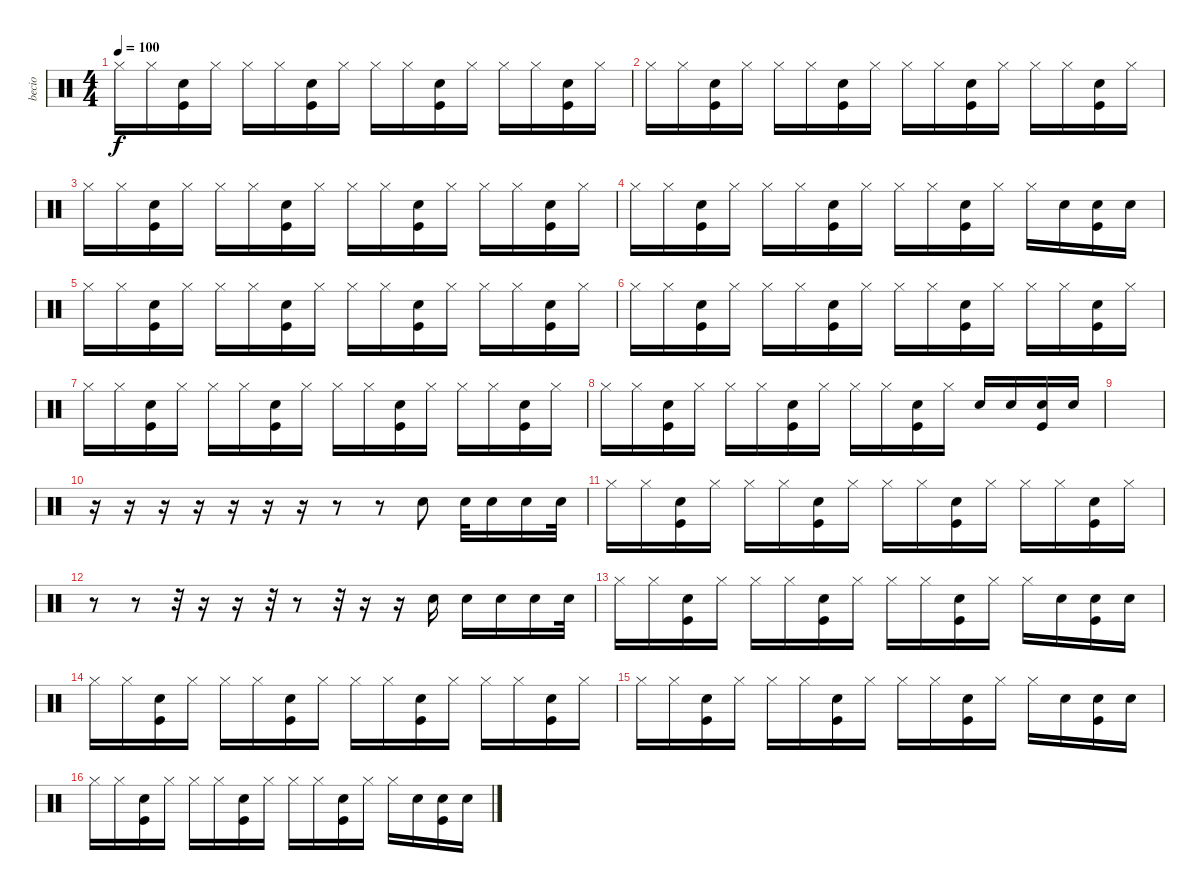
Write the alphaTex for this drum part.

\track ("becio" "becio") {instrument percussion}
\staff {score}
\articulation defaults
\ts (4 4)
\tempo 100
\clef neutral
\ks c "Hi-Hat (closed)".16{dy f} "Hi-Hat (closed)".16
("Electric Snare (hit)" "Kick (hit)").16 "Hi-Hat (closed)".16 "Hi-Hat (closed)".16 "Hi-Hat (closed)".16 ("Electric Snare (hit)" "Kick (hit)").16 "Hi-Hat (closed)".16 "Hi-Hat (closed)".16 "Hi-Hat (closed)".16 ("Electric Snare (hit)" "Kick (hit)").16 "Hi-Hat (closed)".16 "Hi-Hat (closed)".16 "Hi-Hat (closed)".16 ("Electric Snare (hit)" "Kick (hit)").16 "Hi-Hat (closed)".16 |
"Hi-Hat (closed)".16 "Hi-Hat (closed)".16 ("Electric Snare (hit)" "Kick (hit)").16 "Hi-Hat (closed)".16 "Hi-Hat (closed)".16 "Hi-Hat (closed)".16 ("Electric Snare (hit)" "Kick (hit)").16 "Hi-Hat (closed)".16 "Hi-Hat (closed)".16 "Hi-Hat (closed)".16 ("Electric Snare (hit)" "Kick (hit)").16 "Hi-Hat (closed)".16 "Hi-Hat (closed)".16 "Hi-Hat (closed)".16 ("Electric Snare (hit)" "Kick (hit)").16 "Hi-Hat (closed)".16 |
"Hi-Hat (closed)".16 "Hi-Hat (closed)".16 ("Electric Snare (hit)" "Kick (hit)").16 "Hi-Hat (closed)".16 "Hi-Hat (closed)".16 "Hi-Hat (closed)".16 ("Electric Snare (hit)" "Kick (hit)").16 "Hi-Hat (closed)".16 "Hi-Hat (closed)".16 "Hi-Hat (closed)".16 ("Electric Snare (hit)" "Kick (hit)").16 "Hi-Hat (closed)".16 "Hi-Hat (closed)".16 "Hi-Hat (closed)".16 ("Electric Snare (hit)" "Kick (hit)").16 "Hi-Hat (closed)".16 |
"Hi-Hat (closed)".16 "Hi-Hat (closed)".16 ("Electric Snare (hit)" "Kick (hit)").16 "Hi-Hat (closed)".16 "Hi-Hat (closed)".16 "Hi-Hat (closed)".16 ("Electric Snare (hit)" "Kick (hit)").16 "Hi-Hat (closed)".16 "Hi-Hat (closed)".16 "Hi-Hat (closed)".16 ("Electric Snare (hit)" "Kick (hit)").16 "Hi-Hat (closed)".16 "Hi-Hat (closed)".16 "Electric Snare (hit)".16 ("Electric Snare (hit)" "Kick (hit)").16 "Electric Snare (hit)".16 |
"Hi-Hat (closed)".16 "Hi-Hat (closed)".16 ("Electric Snare (hit)" "Kick (hit)").16 "Hi-Hat (closed)".16 "Hi-Hat (closed)".16 "Hi-Hat (closed)".16 ("Electric Snare (hit)" "Kick (hit)").16 "Hi-Hat (closed)".16 "Hi-Hat (closed)".16 "Hi-Hat (closed)".16 ("Electric Snare (hit)" "Kick (hit)").16 "Hi-Hat (closed)".16 "Hi-Hat (closed)".16 "Hi-Hat (closed)".16 ("Electric Snare (hit)" "Kick (hit)").16 "Hi-Hat (closed)".16 |
"Hi-Hat (closed)".16 "Hi-Hat (closed)".16 ("Electric Snare (hit)" "Kick (hit)").16 "Hi-Hat (closed)".16 "Hi-Hat (closed)".16 "Hi-Hat (closed)".16 ("Electric Snare (hit)" "Kick (hit)").16 "Hi-Hat (closed)".16 "Hi-Hat (closed)".16 "Hi-Hat (closed)".16 ("Electric Snare (hit)" "Kick (hit)").16 "Hi-Hat (closed)".16 "Hi-Hat (closed)".16 "Hi-Hat (closed)".16 ("Electric Snare (hit)" "Kick (hit)").16 "Hi-Hat (closed)".16 |
"Hi-Hat (closed)".16 "Hi-Hat (closed)".16 ("Electric Snare (hit)" "Kick (hit)").16 "Hi-Hat (closed)".16 "Hi-Hat (closed)".16 "Hi-Hat (closed)".16 ("Electric Snare (hit)" "Kick (hit)").16 "Hi-Hat (closed)".16 "Hi-Hat (closed)".16 "Hi-Hat (closed)".16 ("Electric Snare (hit)" "Kick (hit)").16 "Hi-Hat (closed)".16 "Hi-Hat (closed)".16 "Hi-Hat (closed)".16 ("Electric Snare (hit)" "Kick (hit)").16 "Hi-Hat (closed)".16 |
"Hi-Hat (closed)".16 "Hi-Hat (closed)".16 ("Electric Snare (hit)" "Kick (hit)").16 "Hi-Hat (closed)".16 "Hi-Hat (closed)".16 "Hi-Hat (closed)".16 ("Electric Snare (hit)" "Kick (hit)").16 "Hi-Hat (closed)".16 "Hi-Hat (closed)".16 "Hi-Hat (closed)".16 ("Electric Snare (hit)" "Kick (hit)").16 "Hi-Hat (closed)".16 "Electric Snare (hit)".16 "Electric Snare (hit)".16 ("Electric Snare (hit)" "Kick (hit)").16 "Electric Snare (hit)".16 |
|
r.16 r.16 r.16 r.16 r.16 r.16 r.16 r.8 r.8 "Electric Snare (hit)".8 "Electric Snare (hit)".32 "Electric Snare (hit)".16 "Electric Snare (hit)".16 "Electric Snare (hit)".32 |
"Hi-Hat (closed)".16 "Hi-Hat (closed)".16 ("Electric Snare (hit)" "Kick (hit)").16 "Hi-Hat (closed)".16 "Hi-Hat (closed)".16 "Hi-Hat (closed)".16 ("Electric Snare (hit)" "Kick (hit)").16 "Hi-Hat (closed)".16 "Hi-Hat (closed)".16 "Hi-Hat (closed)".16 ("Electric Snare (hit)" "Kick (hit)").16 "Hi-Hat (closed)".16 "Hi-Hat (closed)".16 "Hi-Hat (closed)".16 ("Electric Snare (hit)" "Kick (hit)").16 "Hi-Hat (closed)".16 |
r.8 r.8 r.32 r.16 r.16 r.32 r.8 r.32 r.16 r.16 "Electric Snare (hit)".16 "Electric Snare (hit)".16 "Electric Snare (hit)".16 "Electric Snare (hit)".16 "Electric Snare (hit)".32 |
"Hi-Hat (closed)".16 "Hi-Hat (closed)".16 ("Electric Snare (hit)" "Kick (hit)").16 "Hi-Hat (closed)".16 "Hi-Hat (closed)".16 "Hi-Hat (closed)".16 ("Electric Snare (hit)" "Kick (hit)").16 "Hi-Hat (closed)".16 "Hi-Hat (closed)".16 "Hi-Hat (closed)".16 ("Electric Snare (hit)" "Kick (hit)").16 "Hi-Hat (closed)".16 "Hi-Hat (closed)".16 "Electric Snare (hit)".16 ("Electric Snare (hit)" "Kick (hit)").16 "Electric Snare (hit)".16 |
"Hi-Hat (closed)".16 "Hi-Hat (closed)".16 ("Electric Snare (hit)" "Kick (hit)").16 "Hi-Hat (closed)".16 "Hi-Hat (closed)".16 "Hi-Hat (closed)".16 ("Electric Snare (hit)" "Kick (hit)").16 "Hi-Hat (closed)".16 "Hi-Hat (closed)".16 "Hi-Hat (closed)".16 ("Electric Snare (hit)" "Kick (hit)").16 "Hi-Hat (closed)".16 "Hi-Hat (closed)".16 "Hi-Hat (closed)".16 ("Electric Snare (hit)" "Kick (hit)").16 "Hi-Hat (closed)".16 |
"Hi-Hat (closed)".16 "Hi-Hat (closed)".16 ("Electric Snare (hit)" "Kick (hit)").16 "Hi-Hat (closed)".16 "Hi-Hat (closed)".16 "Hi-Hat (closed)".16 ("Electric Snare (hit)" "Kick (hit)").16 "Hi-Hat (closed)".16 "Hi-Hat (closed)".16 "Hi-Hat (closed)".16 ("Electric Snare (hit)" "Kick (hit)").16 "Hi-Hat (closed)".16 "Hi-Hat (closed)".16 "Electric Snare (hit)".16 ("Electric Snare (hit)" "Kick (hit)").16 "Electric Snare (hit)".16 |
"Hi-Hat (closed)".16 "Hi-Hat (closed)".16 ("Electric Snare (hit)" "Kick (hit)").16 "Hi-Hat (closed)".16 "Hi-Hat (closed)".16 "Hi-Hat (closed)".16 ("Electric Snare (hit)" "Kick (hit)").16 "Hi-Hat (closed)".16 "Hi-Hat (closed)".16 "Hi-Hat (closed)".16 ("Electric Snare (hit)" "Kick (hit)").16 "Hi-Hat (closed)".16 "Hi-Hat (closed)".16 "Electric Snare (hit)".16 ("Electric Snare (hit)" "Kick (hit)").16 "Electric Snare (hit)".16
